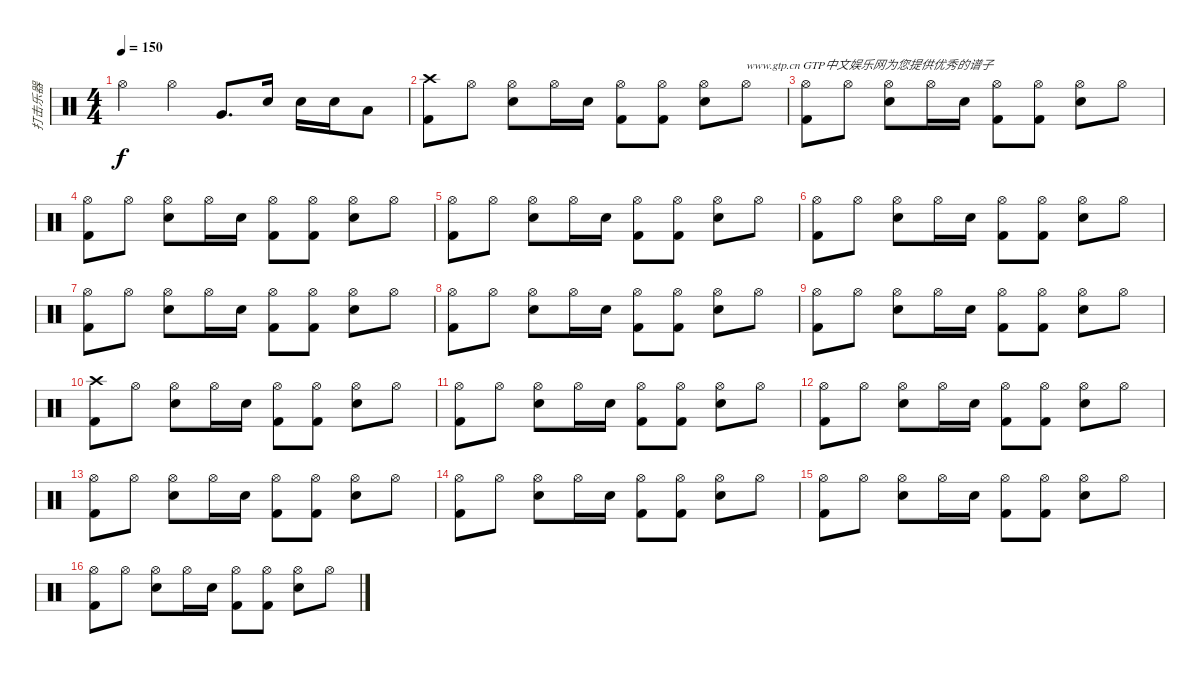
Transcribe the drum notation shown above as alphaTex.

\track ("打击乐器" "打击乐器") {instrument percussion}
\staff {score}
\articulation defaults
\ts (4 4)
\tempo 150
\clef neutral
\ks c "Hi-Hat (open)".4{dy f} "Hi-Hat (open)".4 "Very Low Tom (hit)".8{d} "Snare (hit) 2".16 "Snare (hit) 2".16 "Snare (hit) 2".16 "Low Tom (hit)".8
|
("Crash high (hit)" "Kick (hit) 2").8 "Hi-Hat (open)".8 ("Hi-Hat (open)" "Snare (hit) 2").8 "Hi-Hat (open)".16 "Snare (hit) 2".16 ("Hi-Hat (open)" "Kick (hit) 2").8 ("Hi-Hat (open)" "Kick (hit) 2").8 ("Hi-Hat (open)" "Snare (hit) 2").8 "Hi-Hat (open)".8{txt "www.gtp.cn GTP中文娱乐网为您提供优秀的谱子"} |
("Hi-Hat (open)" "Kick (hit) 2").8 "Hi-Hat (open)".8 ("Hi-Hat (open)" "Snare (hit) 2").8 "Hi-Hat (open)".16 "Snare (hit) 2".16 ("Hi-Hat (open)" "Kick (hit) 2").8 ("Hi-Hat (open)" "Kick (hit) 2").8 ("Hi-Hat (open)" "Snare (hit) 2").8 "Hi-Hat (open)".8 |
("Hi-Hat (open)" "Kick (hit) 2").8 "Hi-Hat (open)".8 ("Hi-Hat (open)" "Snare (hit) 2").8 "Hi-Hat (open)".16 "Snare (hit) 2".16 ("Hi-Hat (open)" "Kick (hit) 2").8 ("Hi-Hat (open)" "Kick (hit) 2").8 ("Hi-Hat (open)" "Snare (hit) 2").8 "Hi-Hat (open)".8 |
("Hi-Hat (open)" "Kick (hit) 2").8 "Hi-Hat (open)".8 ("Hi-Hat (open)" "Snare (hit) 2").8 "Hi-Hat (open)".16 "Snare (hit) 2".16 ("Hi-Hat (open)" "Kick (hit) 2").8 ("Hi-Hat (open)" "Kick (hit) 2").8 ("Hi-Hat (open)" "Snare (hit) 2").8 "Hi-Hat (open)".8 |
("Hi-Hat (open)" "Kick (hit) 2").8 "Hi-Hat (open)".8 ("Hi-Hat (open)" "Snare (hit) 2").8 "Hi-Hat (open)".16 "Snare (hit) 2".16 ("Hi-Hat (open)" "Kick (hit) 2").8 ("Hi-Hat (open)" "Kick (hit) 2").8 ("Hi-Hat (open)" "Snare (hit) 2").8 "Hi-Hat (open)".8 |
("Hi-Hat (open)" "Kick (hit) 2").8 "Hi-Hat (open)".8 ("Hi-Hat (open)" "Snare (hit) 2").8 "Hi-Hat (open)".16 "Snare (hit) 2".16 ("Hi-Hat (open)" "Kick (hit) 2").8 ("Hi-Hat (open)" "Kick (hit) 2").8 ("Hi-Hat (open)" "Snare (hit) 2").8 "Hi-Hat (open)".8 |
("Hi-Hat (open)" "Kick (hit) 2").8 "Hi-Hat (open)".8 ("Hi-Hat (open)" "Snare (hit) 2").8 "Hi-Hat (open)".16 "Snare (hit) 2".16 ("Hi-Hat (open)" "Kick (hit) 2").8 ("Hi-Hat (open)" "Kick (hit) 2").8 ("Hi-Hat (open)" "Snare (hit) 2").8 "Hi-Hat (open)".8 |
("Hi-Hat (open)" "Kick (hit) 2").8 "Hi-Hat (open)".8 ("Hi-Hat (open)" "Snare (hit) 2").8 "Hi-Hat (open)".16 "Snare (hit) 2".16 ("Hi-Hat (open)" "Kick (hit) 2").8 ("Hi-Hat (open)" "Kick (hit) 2").8 ("Hi-Hat (open)" "Snare (hit) 2").8 "Hi-Hat (open)".8 |
("Crash high (hit)" "Kick (hit) 2").8 "Hi-Hat (open)".8 ("Hi-Hat (open)" "Snare (hit) 2").8 "Hi-Hat (open)".16 "Snare (hit) 2".16 ("Hi-Hat (open)" "Kick (hit) 2").8 ("Hi-Hat (open)" "Kick (hit) 2").8 ("Hi-Hat (open)" "Snare (hit) 2").8 "Hi-Hat (open)".8 |
("Hi-Hat (open)" "Kick (hit) 2").8 "Hi-Hat (open)".8 ("Hi-Hat (open)" "Snare (hit) 2").8 "Hi-Hat (open)".16 "Snare (hit) 2".16 ("Hi-Hat (open)" "Kick (hit) 2").8 ("Hi-Hat (open)" "Kick (hit) 2").8 ("Hi-Hat (open)" "Snare (hit) 2").8 "Hi-Hat (open)".8 |
("Hi-Hat (open)" "Kick (hit) 2").8 "Hi-Hat (open)".8 ("Hi-Hat (open)" "Snare (hit) 2").8 "Hi-Hat (open)".16 "Snare (hit) 2".16 ("Hi-Hat (open)" "Kick (hit) 2").8 ("Hi-Hat (open)" "Kick (hit) 2").8 ("Hi-Hat (open)" "Snare (hit) 2").8 "Hi-Hat (open)".8 |
("Hi-Hat (open)" "Kick (hit) 2").8 "Hi-Hat (open)".8 ("Hi-Hat (open)" "Snare (hit) 2").8 "Hi-Hat (open)".16 "Snare (hit) 2".16 ("Hi-Hat (open)" "Kick (hit) 2").8 ("Hi-Hat (open)" "Kick (hit) 2").8 ("Hi-Hat (open)" "Snare (hit) 2").8 "Hi-Hat (open)".8 |
("Hi-Hat (open)" "Kick (hit) 2").8 "Hi-Hat (open)".8 ("Hi-Hat (open)" "Snare (hit) 2").8 "Hi-Hat (open)".16 "Snare (hit) 2".16 ("Hi-Hat (open)" "Kick (hit) 2").8 ("Hi-Hat (open)" "Kick (hit) 2").8 ("Hi-Hat (open)" "Snare (hit) 2").8 "Hi-Hat (open)".8 |
("Hi-Hat (open)" "Kick (hit) 2").8 "Hi-Hat (open)".8 ("Hi-Hat (open)" "Snare (hit) 2").8 "Hi-Hat (open)".16 "Snare (hit) 2".16 ("Hi-Hat (open)" "Kick (hit) 2").8 ("Hi-Hat (open)" "Kick (hit) 2").8 ("Hi-Hat (open)" "Snare (hit) 2").8 "Hi-Hat (open)".8 |
("Hi-Hat (open)" "Kick (hit) 2").8 "Hi-Hat (open)".8 ("Hi-Hat (open)" "Snare (hit) 2").8 "Hi-Hat (open)".16 "Snare (hit) 2".16 ("Hi-Hat (open)" "Kick (hit) 2").8 ("Hi-Hat (open)" "Kick (hit) 2").8 ("Hi-Hat (open)" "Snare (hit) 2").8 "Hi-Hat (open)".8
